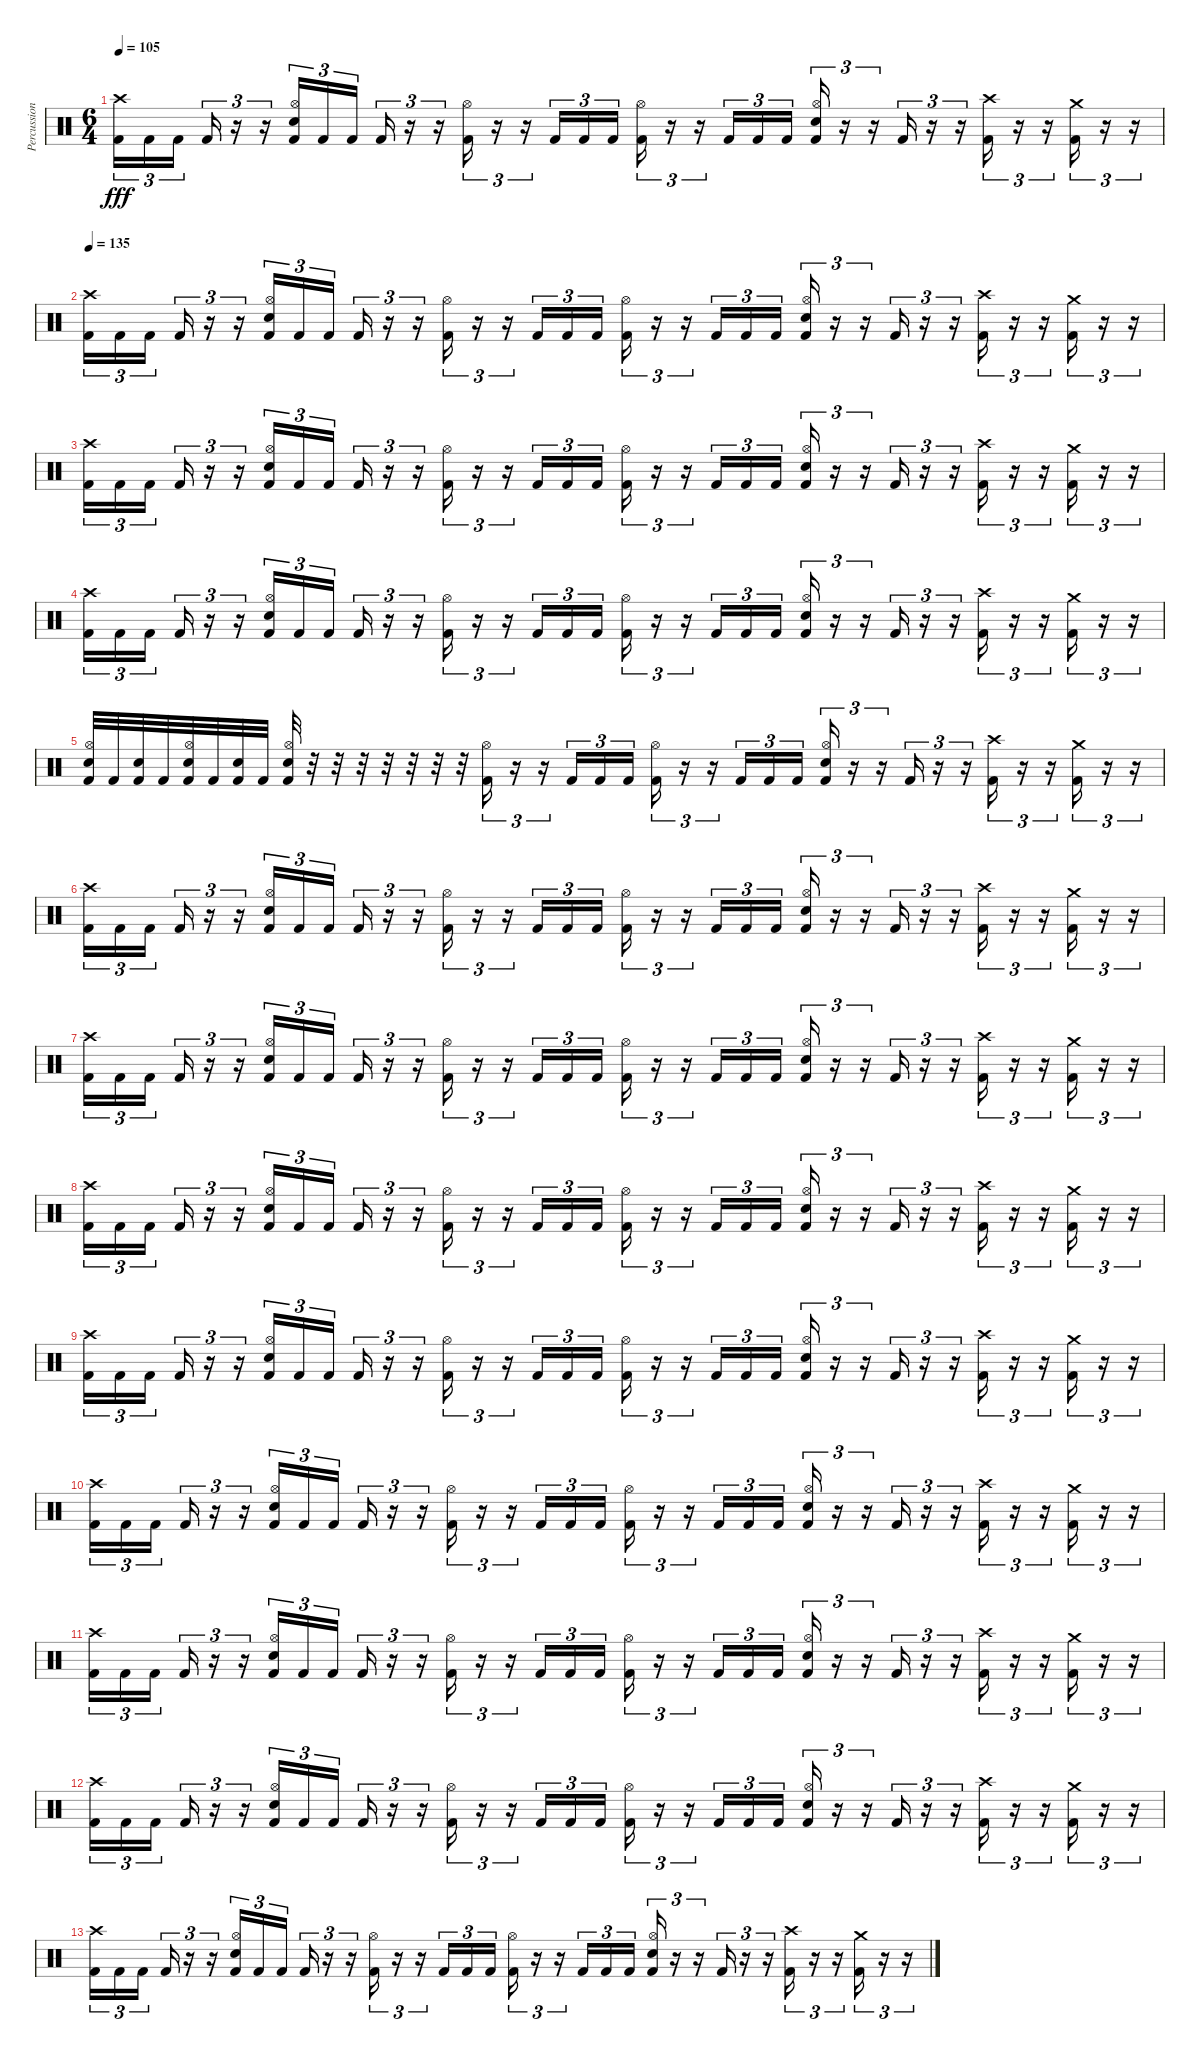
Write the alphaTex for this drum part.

\track ("Percussion" "Percussion") {instrument percussion bank 16}
\staff {score}
\articulation defaults
\ts (6 4)
\tempo 105
\clef neutral
\ks c
("Crash high (hit)" "Kick (hit) 2").16{tu (3 2) dy fff} "Kick (hit) 2".16{tu (3 2)} "Kick (hit) 2".16{tu (3 2) beam splitsecondary} "Kick (hit) 2".16{tu (3 2)} r.16{tu (3 2)} r.16{tu (3 2)} ("Hi-Hat (open)" "Electric Snare (hit)" "Kick (hit) 2").16{tu (3 2)} "Kick (hit) 2".16{tu (3 2)} "Kick (hit) 2".16{tu (3 2) beam splitsecondary} "Kick (hit) 2".16{tu (3 2)} r.16{tu (3 2)} r.16{tu (3 2)} ("Hi-Hat (open)" "Kick (hit) 2").16{tu (3 2)} r.16{tu (3 2)} r.16{tu (3 2)} "Kick (hit) 2".16{tu (3 2)} "Kick (hit) 2".16{tu (3 2)} "Kick (hit) 2".16{tu (3 2)} ("Hi-Hat (open)" "Kick (hit) 2").16{tu (3 2)} r.16{tu (3 2)} r.16{tu (3 2)} "Kick (hit) 2".16{tu (3 2)} "Kick (hit) 2".16{tu (3 2)} "Kick (hit) 2".16{tu (3 2) beam splitsecondary} ("Hi-Hat (open)" "Electric Snare (hit)" "Kick (hit) 2").16{tu (3 2)} r.16{tu (3 2)} r.16{tu (3 2)} "Kick (hit) 2".16{tu (3 2)} r.16{tu (3 2)} r.16{tu (3 2)} ("Crash high (hit)" "Kick (hit) 2").16{tu (3 2)} r.16{tu (3 2)} r.16{tu (3 2)} ("Crash medium (hit)" "Kick (hit) 2").16{tu (3 2)} r.16{tu (3 2)} r.16{tu (3 2)} |
\tempo 135
("Crash high (hit)" "Kick (hit) 2").16{tu (3 2)} "Kick (hit) 2".16{tu (3 2)} "Kick (hit) 2".16{tu (3 2) beam splitsecondary} "Kick (hit) 2".16{tu (3 2)} r.16{tu (3 2)} r.16{tu (3 2)} ("Hi-Hat (open)" "Electric Snare (hit)" "Kick (hit) 2").16{tu (3 2)} "Kick (hit) 2".16{tu (3 2)} "Kick (hit) 2".16{tu (3 2) beam splitsecondary} "Kick (hit) 2".16{tu (3 2)} r.16{tu (3 2)} r.16{tu (3 2)} ("Hi-Hat (open)" "Kick (hit) 2").16{tu (3 2)} r.16{tu (3 2)} r.16{tu (3 2)} "Kick (hit) 2".16{tu (3 2)} "Kick (hit) 2".16{tu (3 2)} "Kick (hit) 2".16{tu (3 2)} ("Hi-Hat (open)" "Kick (hit) 2").16{tu (3 2)} r.16{tu (3 2)} r.16{tu (3 2)} "Kick (hit) 2".16{tu (3 2)} "Kick (hit) 2".16{tu (3 2)} "Kick (hit) 2".16{tu (3 2) beam splitsecondary} ("Hi-Hat (open)" "Electric Snare (hit)" "Kick (hit) 2").16{tu (3 2)} r.16{tu (3 2)} r.16{tu (3 2)} "Kick (hit) 2".16{tu (3 2)} r.16{tu (3 2)} r.16{tu (3 2)} ("Crash high (hit)" "Kick (hit) 2").16{tu (3 2)} r.16{tu (3 2)} r.16{tu (3 2)} ("Crash medium (hit)" "Kick (hit) 2").16{tu (3 2)} r.16{tu (3 2)} r.16{tu (3 2)} |
("Crash high (hit)" "Kick (hit) 2").16{tu (3 2)} "Kick (hit) 2".16{tu (3 2)} "Kick (hit) 2".16{tu (3 2) beam splitsecondary} "Kick (hit) 2".16{tu (3 2)} r.16{tu (3 2)} r.16{tu (3 2)} ("Hi-Hat (open)" "Electric Snare (hit)" "Kick (hit) 2").16{tu (3 2)} "Kick (hit) 2".16{tu (3 2)} "Kick (hit) 2".16{tu (3 2) beam splitsecondary} "Kick (hit) 2".16{tu (3 2)} r.16{tu (3 2)} r.16{tu (3 2)} ("Hi-Hat (open)" "Kick (hit) 2").16{tu (3 2)} r.16{tu (3 2)} r.16{tu (3 2)} "Kick (hit) 2".16{tu (3 2)} "Kick (hit) 2".16{tu (3 2)} "Kick (hit) 2".16{tu (3 2)} ("Hi-Hat (open)" "Kick (hit) 2").16{tu (3 2)} r.16{tu (3 2)} r.16{tu (3 2)} "Kick (hit) 2".16{tu (3 2)} "Kick (hit) 2".16{tu (3 2)} "Kick (hit) 2".16{tu (3 2) beam splitsecondary} ("Hi-Hat (open)" "Electric Snare (hit)" "Kick (hit) 2").16{tu (3 2)} r.16{tu (3 2)} r.16{tu (3 2)} "Kick (hit) 2".16{tu (3 2)} r.16{tu (3 2)} r.16{tu (3 2)} ("Crash high (hit)" "Kick (hit) 2").16{tu (3 2)} r.16{tu (3 2)} r.16{tu (3 2)} ("Crash medium (hit)" "Kick (hit) 2").16{tu (3 2)} r.16{tu (3 2)} r.16{tu (3 2)} |
("Crash high (hit)" "Kick (hit) 2").16{tu (3 2)} "Kick (hit) 2".16{tu (3 2)} "Kick (hit) 2".16{tu (3 2) beam splitsecondary} "Kick (hit) 2".16{tu (3 2)} r.16{tu (3 2)} r.16{tu (3 2)} ("Hi-Hat (open)" "Electric Snare (hit)" "Kick (hit) 2").16{tu (3 2)} "Kick (hit) 2".16{tu (3 2)} "Kick (hit) 2".16{tu (3 2) beam splitsecondary} "Kick (hit) 2".16{tu (3 2)} r.16{tu (3 2)} r.16{tu (3 2)} ("Hi-Hat (open)" "Kick (hit) 2").16{tu (3 2)} r.16{tu (3 2)} r.16{tu (3 2)} "Kick (hit) 2".16{tu (3 2)} "Kick (hit) 2".16{tu (3 2)} "Kick (hit) 2".16{tu (3 2)} ("Hi-Hat (open)" "Kick (hit) 2").16{tu (3 2)} r.16{tu (3 2)} r.16{tu (3 2)} "Kick (hit) 2".16{tu (3 2)} "Kick (hit) 2".16{tu (3 2)} "Kick (hit) 2".16{tu (3 2) beam splitsecondary} ("Hi-Hat (open)" "Electric Snare (hit)" "Kick (hit) 2").16{tu (3 2)} r.16{tu (3 2)} r.16{tu (3 2)} "Kick (hit) 2".16{tu (3 2)} r.16{tu (3 2)} r.16{tu (3 2)} ("Crash high (hit)" "Kick (hit) 2").16{tu (3 2)} r.16{tu (3 2)} r.16{tu (3 2)} ("Crash medium (hit)" "Kick (hit) 2").16{tu (3 2)} r.16{tu (3 2)} r.16{tu (3 2)} |
("Hi-Hat (open)" "Electric Snare (hit)" "Kick (hit) 2").32 "Kick (hit) 2".32 ("Electric Snare (hit)" "Kick (hit) 2").32 "Kick (hit) 2".32 ("Hi-Hat (open)" "Electric Snare (hit)" "Kick (hit) 2").32 "Kick (hit) 2".32 ("Electric Snare (hit)" "Kick (hit) 2").32 "Kick (hit) 2".32 ("Hi-Hat (open)" "Electric Snare (hit)" "Kick (hit) 2").32 r.32 r.32 r.32 r.32 r.32 r.32 r.32 ("Hi-Hat (open)" "Kick (hit) 2").16{tu (3 2)} r.16{tu (3 2)} r.16{tu (3 2)} "Kick (hit) 2".16{tu (3 2)} "Kick (hit) 2".16{tu (3 2)} "Kick (hit) 2".16{tu (3 2)} ("Hi-Hat (open)" "Kick (hit) 2").16{tu (3 2)} r.16{tu (3 2)} r.16{tu (3 2)} "Kick (hit) 2".16{tu (3 2)} "Kick (hit) 2".16{tu (3 2)} "Kick (hit) 2".16{tu (3 2) beam splitsecondary} ("Hi-Hat (open)" "Electric Snare (hit)" "Kick (hit) 2").16{tu (3 2)} r.16{tu (3 2)} r.16{tu (3 2)} "Kick (hit) 2".16{tu (3 2)} r.16{tu (3 2)} r.16{tu (3 2)} ("Crash high (hit)" "Kick (hit) 2").16{tu (3 2)} r.16{tu (3 2)} r.16{tu (3 2)} ("Crash medium (hit)" "Kick (hit) 2").16{tu (3 2)} r.16{tu (3 2)} r.16{tu (3 2)} |
("Crash high (hit)" "Kick (hit) 2").16{tu (3 2)} "Kick (hit) 2".16{tu (3 2)} "Kick (hit) 2".16{tu (3 2) beam splitsecondary} "Kick (hit) 2".16{tu (3 2)} r.16{tu (3 2)} r.16{tu (3 2)} ("Hi-Hat (open)" "Electric Snare (hit)" "Kick (hit) 2").16{tu (3 2)} "Kick (hit) 2".16{tu (3 2)} "Kick (hit) 2".16{tu (3 2) beam splitsecondary} "Kick (hit) 2".16{tu (3 2)} r.16{tu (3 2)} r.16{tu (3 2)} ("Hi-Hat (open)" "Kick (hit) 2").16{tu (3 2)} r.16{tu (3 2)} r.16{tu (3 2)} "Kick (hit) 2".16{tu (3 2)} "Kick (hit) 2".16{tu (3 2)} "Kick (hit) 2".16{tu (3 2)} ("Hi-Hat (open)" "Kick (hit) 2").16{tu (3 2)} r.16{tu (3 2)} r.16{tu (3 2)} "Kick (hit) 2".16{tu (3 2)} "Kick (hit) 2".16{tu (3 2)} "Kick (hit) 2".16{tu (3 2) beam splitsecondary} ("Hi-Hat (open)" "Electric Snare (hit)" "Kick (hit) 2").16{tu (3 2)} r.16{tu (3 2)} r.16{tu (3 2)} "Kick (hit) 2".16{tu (3 2)} r.16{tu (3 2)} r.16{tu (3 2)} ("Crash high (hit)" "Kick (hit) 2").16{tu (3 2)} r.16{tu (3 2)} r.16{tu (3 2)} ("Crash medium (hit)" "Kick (hit) 2").16{tu (3 2)} r.16{tu (3 2)} r.16{tu (3 2)} |
("Crash high (hit)" "Kick (hit) 2").16{tu (3 2)} "Kick (hit) 2".16{tu (3 2)} "Kick (hit) 2".16{tu (3 2) beam splitsecondary} "Kick (hit) 2".16{tu (3 2)} r.16{tu (3 2)} r.16{tu (3 2)} ("Hi-Hat (open)" "Electric Snare (hit)" "Kick (hit) 2").16{tu (3 2)} "Kick (hit) 2".16{tu (3 2)} "Kick (hit) 2".16{tu (3 2) beam splitsecondary} "Kick (hit) 2".16{tu (3 2)} r.16{tu (3 2)} r.16{tu (3 2)} ("Hi-Hat (open)" "Kick (hit) 2").16{tu (3 2)} r.16{tu (3 2)} r.16{tu (3 2)} "Kick (hit) 2".16{tu (3 2)} "Kick (hit) 2".16{tu (3 2)} "Kick (hit) 2".16{tu (3 2)} ("Hi-Hat (open)" "Kick (hit) 2").16{tu (3 2)} r.16{tu (3 2)} r.16{tu (3 2)} "Kick (hit) 2".16{tu (3 2)} "Kick (hit) 2".16{tu (3 2)} "Kick (hit) 2".16{tu (3 2) beam splitsecondary} ("Hi-Hat (open)" "Electric Snare (hit)" "Kick (hit) 2").16{tu (3 2)} r.16{tu (3 2)} r.16{tu (3 2)} "Kick (hit) 2".16{tu (3 2)} r.16{tu (3 2)} r.16{tu (3 2)} ("Crash high (hit)" "Kick (hit) 2").16{tu (3 2)} r.16{tu (3 2)} r.16{tu (3 2)} ("Crash medium (hit)" "Kick (hit) 2").16{tu (3 2)} r.16{tu (3 2)} r.16{tu (3 2)} |
("Crash high (hit)" "Kick (hit) 2").16{tu (3 2)} "Kick (hit) 2".16{tu (3 2)} "Kick (hit) 2".16{tu (3 2) beam splitsecondary} "Kick (hit) 2".16{tu (3 2)} r.16{tu (3 2)} r.16{tu (3 2)} ("Hi-Hat (open)" "Electric Snare (hit)" "Kick (hit) 2").16{tu (3 2)} "Kick (hit) 2".16{tu (3 2)} "Kick (hit) 2".16{tu (3 2) beam splitsecondary} "Kick (hit) 2".16{tu (3 2)} r.16{tu (3 2)} r.16{tu (3 2)} ("Hi-Hat (open)" "Kick (hit) 2").16{tu (3 2)} r.16{tu (3 2)} r.16{tu (3 2)} "Kick (hit) 2".16{tu (3 2)} "Kick (hit) 2".16{tu (3 2)} "Kick (hit) 2".16{tu (3 2)} ("Hi-Hat (open)" "Kick (hit) 2").16{tu (3 2)} r.16{tu (3 2)} r.16{tu (3 2)} "Kick (hit) 2".16{tu (3 2)} "Kick (hit) 2".16{tu (3 2)} "Kick (hit) 2".16{tu (3 2) beam splitsecondary} ("Hi-Hat (open)" "Electric Snare (hit)" "Kick (hit) 2").16{tu (3 2)} r.16{tu (3 2)} r.16{tu (3 2)} "Kick (hit) 2".16{tu (3 2)} r.16{tu (3 2)} r.16{tu (3 2)} ("Crash high (hit)" "Kick (hit) 2").16{tu (3 2)} r.16{tu (3 2)} r.16{tu (3 2)} ("Crash medium (hit)" "Kick (hit) 2").16{tu (3 2)} r.16{tu (3 2)} r.16{tu (3 2)} |
("Crash high (hit)" "Kick (hit) 2").16{tu (3 2)} "Kick (hit) 2".16{tu (3 2)} "Kick (hit) 2".16{tu (3 2) beam splitsecondary} "Kick (hit) 2".16{tu (3 2)} r.16{tu (3 2)} r.16{tu (3 2)} ("Hi-Hat (open)" "Electric Snare (hit)" "Kick (hit) 2").16{tu (3 2)} "Kick (hit) 2".16{tu (3 2)} "Kick (hit) 2".16{tu (3 2) beam splitsecondary} "Kick (hit) 2".16{tu (3 2)} r.16{tu (3 2)} r.16{tu (3 2)} ("Hi-Hat (open)" "Kick (hit) 2").16{tu (3 2)} r.16{tu (3 2)} r.16{tu (3 2)} "Kick (hit) 2".16{tu (3 2)} "Kick (hit) 2".16{tu (3 2)} "Kick (hit) 2".16{tu (3 2)} ("Hi-Hat (open)" "Kick (hit) 2").16{tu (3 2)} r.16{tu (3 2)} r.16{tu (3 2)} "Kick (hit) 2".16{tu (3 2)} "Kick (hit) 2".16{tu (3 2)} "Kick (hit) 2".16{tu (3 2) beam splitsecondary} ("Hi-Hat (open)" "Electric Snare (hit)" "Kick (hit) 2").16{tu (3 2)} r.16{tu (3 2)} r.16{tu (3 2)} "Kick (hit) 2".16{tu (3 2)} r.16{tu (3 2)} r.16{tu (3 2)} ("Crash high (hit)" "Kick (hit) 2").16{tu (3 2)} r.16{tu (3 2)} r.16{tu (3 2)} ("Crash medium (hit)" "Kick (hit) 2").16{tu (3 2)} r.16{tu (3 2)} r.16{tu (3 2)} |
("Crash high (hit)" "Kick (hit) 2").16{tu (3 2)} "Kick (hit) 2".16{tu (3 2)} "Kick (hit) 2".16{tu (3 2) beam splitsecondary} "Kick (hit) 2".16{tu (3 2)} r.16{tu (3 2)} r.16{tu (3 2)} ("Hi-Hat (open)" "Electric Snare (hit)" "Kick (hit) 2").16{tu (3 2)} "Kick (hit) 2".16{tu (3 2)} "Kick (hit) 2".16{tu (3 2) beam splitsecondary} "Kick (hit) 2".16{tu (3 2)} r.16{tu (3 2)} r.16{tu (3 2)} ("Hi-Hat (open)" "Kick (hit) 2").16{tu (3 2)} r.16{tu (3 2)} r.16{tu (3 2)} "Kick (hit) 2".16{tu (3 2)} "Kick (hit) 2".16{tu (3 2)} "Kick (hit) 2".16{tu (3 2)} ("Hi-Hat (open)" "Kick (hit) 2").16{tu (3 2)} r.16{tu (3 2)} r.16{tu (3 2)} "Kick (hit) 2".16{tu (3 2)} "Kick (hit) 2".16{tu (3 2)} "Kick (hit) 2".16{tu (3 2) beam splitsecondary} ("Hi-Hat (open)" "Electric Snare (hit)" "Kick (hit) 2").16{tu (3 2)} r.16{tu (3 2)} r.16{tu (3 2)} "Kick (hit) 2".16{tu (3 2)} r.16{tu (3 2)} r.16{tu (3 2)} ("Crash high (hit)" "Kick (hit) 2").16{tu (3 2)} r.16{tu (3 2)} r.16{tu (3 2)} ("Crash medium (hit)" "Kick (hit) 2").16{tu (3 2)} r.16{tu (3 2)} r.16{tu (3 2)} |
("Crash high (hit)" "Kick (hit) 2").16{tu (3 2)} "Kick (hit) 2".16{tu (3 2)} "Kick (hit) 2".16{tu (3 2) beam splitsecondary} "Kick (hit) 2".16{tu (3 2)} r.16{tu (3 2)} r.16{tu (3 2)} ("Hi-Hat (open)" "Electric Snare (hit)" "Kick (hit) 2").16{tu (3 2)} "Kick (hit) 2".16{tu (3 2)} "Kick (hit) 2".16{tu (3 2) beam splitsecondary} "Kick (hit) 2".16{tu (3 2)} r.16{tu (3 2)} r.16{tu (3 2)} ("Hi-Hat (open)" "Kick (hit) 2").16{tu (3 2)} r.16{tu (3 2)} r.16{tu (3 2)} "Kick (hit) 2".16{tu (3 2)} "Kick (hit) 2".16{tu (3 2)} "Kick (hit) 2".16{tu (3 2)} ("Hi-Hat (open)" "Kick (hit) 2").16{tu (3 2)} r.16{tu (3 2)} r.16{tu (3 2)} "Kick (hit) 2".16{tu (3 2)} "Kick (hit) 2".16{tu (3 2)} "Kick (hit) 2".16{tu (3 2) beam splitsecondary} ("Hi-Hat (open)" "Electric Snare (hit)" "Kick (hit) 2").16{tu (3 2)} r.16{tu (3 2)} r.16{tu (3 2)} "Kick (hit) 2".16{tu (3 2)} r.16{tu (3 2)} r.16{tu (3 2)} ("Crash high (hit)" "Kick (hit) 2").16{tu (3 2)} r.16{tu (3 2)} r.16{tu (3 2)} ("Crash medium (hit)" "Kick (hit) 2").16{tu (3 2)} r.16{tu (3 2)} r.16{tu (3 2)} |
("Crash high (hit)" "Kick (hit) 2").16{tu (3 2)} "Kick (hit) 2".16{tu (3 2)} "Kick (hit) 2".16{tu (3 2) beam splitsecondary} "Kick (hit) 2".16{tu (3 2)} r.16{tu (3 2)} r.16{tu (3 2)} ("Hi-Hat (open)" "Electric Snare (hit)" "Kick (hit) 2").16{tu (3 2)} "Kick (hit) 2".16{tu (3 2)} "Kick (hit) 2".16{tu (3 2) beam splitsecondary} "Kick (hit) 2".16{tu (3 2)} r.16{tu (3 2)} r.16{tu (3 2)} ("Hi-Hat (open)" "Kick (hit) 2").16{tu (3 2)} r.16{tu (3 2)} r.16{tu (3 2)} "Kick (hit) 2".16{tu (3 2)} "Kick (hit) 2".16{tu (3 2)} "Kick (hit) 2".16{tu (3 2)} ("Hi-Hat (open)" "Kick (hit) 2").16{tu (3 2)} r.16{tu (3 2)} r.16{tu (3 2)} "Kick (hit) 2".16{tu (3 2)} "Kick (hit) 2".16{tu (3 2)} "Kick (hit) 2".16{tu (3 2) beam splitsecondary} ("Hi-Hat (open)" "Electric Snare (hit)" "Kick (hit) 2").16{tu (3 2)} r.16{tu (3 2)} r.16{tu (3 2)} "Kick (hit) 2".16{tu (3 2)} r.16{tu (3 2)} r.16{tu (3 2)} ("Crash high (hit)" "Kick (hit) 2").16{tu (3 2)} r.16{tu (3 2)} r.16{tu (3 2)} ("Crash medium (hit)" "Kick (hit) 2").16{tu (3 2)} r.16{tu (3 2)} r.16{tu (3 2)} |
("Crash high (hit)" "Kick (hit) 2").16{tu (3 2)} "Kick (hit) 2".16{tu (3 2)} "Kick (hit) 2".16{tu (3 2) beam splitsecondary} "Kick (hit) 2".16{tu (3 2)} r.16{tu (3 2)} r.16{tu (3 2)} ("Hi-Hat (open)" "Electric Snare (hit)" "Kick (hit) 2").16{tu (3 2)} "Kick (hit) 2".16{tu (3 2)} "Kick (hit) 2".16{tu (3 2) beam splitsecondary} "Kick (hit) 2".16{tu (3 2)} r.16{tu (3 2)} r.16{tu (3 2)} ("Hi-Hat (open)" "Kick (hit) 2").16{tu (3 2)} r.16{tu (3 2)} r.16{tu (3 2)} "Kick (hit) 2".16{tu (3 2)} "Kick (hit) 2".16{tu (3 2)} "Kick (hit) 2".16{tu (3 2)} ("Hi-Hat (open)" "Kick (hit) 2").16{tu (3 2)} r.16{tu (3 2)} r.16{tu (3 2)} "Kick (hit) 2".16{tu (3 2)} "Kick (hit) 2".16{tu (3 2)} "Kick (hit) 2".16{tu (3 2) beam splitsecondary} ("Hi-Hat (open)" "Electric Snare (hit)" "Kick (hit) 2").16{tu (3 2)} r.16{tu (3 2)} r.16{tu (3 2)} "Kick (hit) 2".16{tu (3 2)} r.16{tu (3 2)} r.16{tu (3 2)} ("Crash high (hit)" "Kick (hit) 2").16{tu (3 2)} r.16{tu (3 2)} r.16{tu (3 2)} ("Crash medium (hit)" "Kick (hit) 2").16{tu (3 2)} r.16{tu (3 2)} r.16{tu (3 2)}
